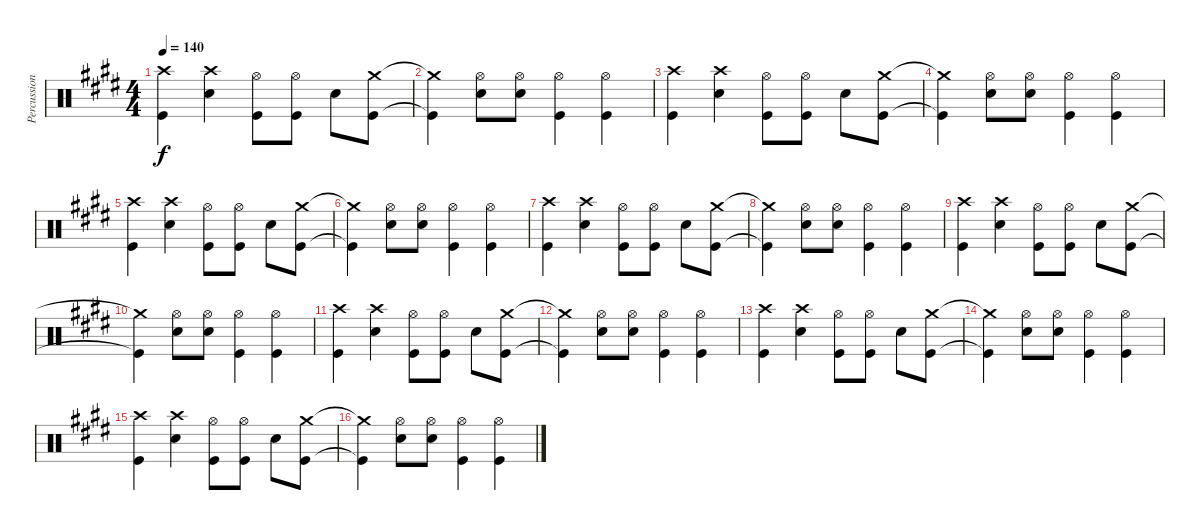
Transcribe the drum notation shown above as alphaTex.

\track ("Percussion" "Percussion") {instrument percussion}
\staff {score}
\articulation defaults
\ts (4 4)
\tempo 140
\clef neutral
\ks e
("Crash high (hit)" "Kick (hit)").4{dy f} ("Crash high (hit)" "Snare (hit) 2").4 ("Hi-Hat (open)" "Kick (hit)").8 ("Hi-Hat (open)" "Kick (hit)").8 "Snare (hit) 2".8 ("Crash medium (hit)" "Kick (hit)").8 |
("Crash medium (hit)"{t} "Kick (hit)"{t}).4 ("Hi-Hat (open)" "Snare (hit) 2").8 ("Hi-Hat (open)" "Snare (hit) 2").8 ("Hi-Hat (open)" "Kick (hit)").4 ("Hi-Hat (open)" "Kick (hit)").4 |
("Crash high (hit)" "Kick (hit)").4 ("Crash high (hit)" "Snare (hit) 2").4 ("Hi-Hat (open)" "Kick (hit)").8 ("Hi-Hat (open)" "Kick (hit)").8 "Snare (hit) 2".8 ("Crash medium (hit)" "Kick (hit)").8 |
("Crash medium (hit)"{t} "Kick (hit)"{t}).4 ("Hi-Hat (open)" "Snare (hit) 2").8 ("Hi-Hat (open)" "Snare (hit) 2").8 ("Hi-Hat (open)" "Kick (hit)").4 ("Hi-Hat (open)" "Kick (hit)").4 |
("Crash high (hit)" "Kick (hit)").4 ("Crash high (hit)" "Snare (hit) 2").4 ("Hi-Hat (open)" "Kick (hit)").8 ("Hi-Hat (open)" "Kick (hit)").8 "Snare (hit) 2".8 ("Crash medium (hit)" "Kick (hit)").8 |
("Crash medium (hit)"{t} "Kick (hit)"{t}).4 ("Hi-Hat (open)" "Snare (hit) 2").8 ("Hi-Hat (open)" "Snare (hit) 2").8 ("Hi-Hat (open)" "Kick (hit)").4 ("Hi-Hat (open)" "Kick (hit)").4 |
("Crash high (hit)" "Kick (hit)").4 ("Crash high (hit)" "Snare (hit) 2").4 ("Hi-Hat (open)" "Kick (hit)").8 ("Hi-Hat (open)" "Kick (hit)").8 "Snare (hit) 2".8 ("Crash medium (hit)" "Kick (hit)").8 |
("Crash medium (hit)"{t} "Kick (hit)"{t}).4 ("Hi-Hat (open)" "Snare (hit) 2").8 ("Hi-Hat (open)" "Snare (hit) 2").8 ("Hi-Hat (open)" "Kick (hit)").4 ("Hi-Hat (open)" "Kick (hit)").4 |
("Crash high (hit)" "Kick (hit)").4 ("Crash high (hit)" "Snare (hit) 2").4 ("Hi-Hat (open)" "Kick (hit)").8 ("Hi-Hat (open)" "Kick (hit)").8 "Snare (hit) 2".8 ("Crash medium (hit)" "Kick (hit)").8 |
("Crash medium (hit)"{t} "Kick (hit)"{t}).4 ("Hi-Hat (open)" "Snare (hit) 2").8 ("Hi-Hat (open)" "Snare (hit) 2").8 ("Hi-Hat (open)" "Kick (hit)").4 ("Hi-Hat (open)" "Kick (hit)").4 |
("Crash high (hit)" "Kick (hit)").4 ("Crash high (hit)" "Snare (hit) 2").4 ("Hi-Hat (open)" "Kick (hit)").8 ("Hi-Hat (open)" "Kick (hit)").8 "Snare (hit) 2".8 ("Crash medium (hit)" "Kick (hit)").8 |
("Crash medium (hit)"{t} "Kick (hit)"{t}).4 ("Hi-Hat (open)" "Snare (hit) 2").8 ("Hi-Hat (open)" "Snare (hit) 2").8 ("Hi-Hat (open)" "Kick (hit)").4 ("Hi-Hat (open)" "Kick (hit)").4 |
("Crash high (hit)" "Kick (hit)").4 ("Crash high (hit)" "Snare (hit) 2").4 ("Hi-Hat (open)" "Kick (hit)").8 ("Hi-Hat (open)" "Kick (hit)").8 "Snare (hit) 2".8 ("Crash medium (hit)" "Kick (hit)").8 |
("Crash medium (hit)"{t} "Kick (hit)"{t}).4 ("Hi-Hat (open)" "Snare (hit) 2").8 ("Hi-Hat (open)" "Snare (hit) 2").8 ("Hi-Hat (open)" "Kick (hit)").4 ("Hi-Hat (open)" "Kick (hit)").4 |
("Crash high (hit)" "Kick (hit)").4 ("Crash high (hit)" "Snare (hit) 2").4 ("Hi-Hat (open)" "Kick (hit)").8 ("Hi-Hat (open)" "Kick (hit)").8 "Snare (hit) 2".8 ("Crash medium (hit)" "Kick (hit)").8 |
("Crash medium (hit)"{t} "Kick (hit)"{t}).4 ("Hi-Hat (open)" "Snare (hit) 2").8 ("Hi-Hat (open)" "Snare (hit) 2").8 ("Hi-Hat (open)" "Kick (hit)").4 ("Hi-Hat (open)" "Kick (hit)").4
